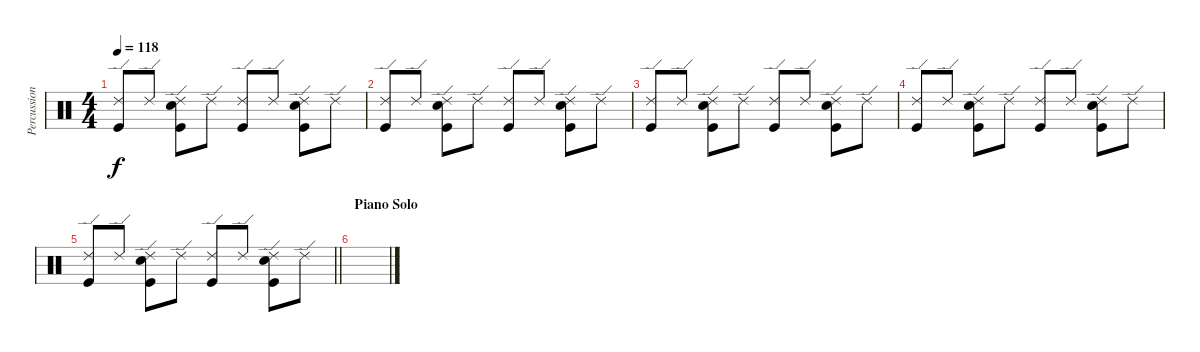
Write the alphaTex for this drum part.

\track ("Percussion (RSE)" "Percussion") {instrument percussion}
\staff {score}
\articulation defaults
\ts (4 4)
\tempo 118
\clef neutral
\ks c
("Ride (edge) 2" "Kick (hit)").8{dy f} "Ride (edge) 2".8 ("Ride (edge) 2" "Snare (hit) 2" "Kick (hit)").8 "Ride (edge) 2".8 ("Ride (edge) 2" "Kick (hit)").8 "Ride (edge) 2".8 ("Ride (edge) 2" "Snare (hit) 2" "Kick (hit)").8 "Ride (edge) 2".8 |
("Ride (edge) 2" "Kick (hit)").8 "Ride (edge) 2".8 ("Ride (edge) 2" "Snare (hit) 2" "Kick (hit)").8 "Ride (edge) 2".8 ("Ride (edge) 2" "Kick (hit)").8 "Ride (edge) 2".8 ("Ride (edge) 2" "Snare (hit) 2" "Kick (hit)").8 "Ride (edge) 2".8 |
("Ride (edge) 2" "Kick (hit)").8 "Ride (edge) 2".8 ("Ride (edge) 2" "Snare (hit) 2" "Kick (hit)").8 "Ride (edge) 2".8 ("Ride (edge) 2" "Kick (hit)").8 "Ride (edge) 2".8 ("Ride (edge) 2" "Snare (hit) 2" "Kick (hit)").8 "Ride (edge) 2".8 |
("Ride (edge) 2" "Kick (hit)").8 "Ride (edge) 2".8 ("Ride (edge) 2" "Snare (hit) 2" "Kick (hit)").8 "Ride (edge) 2".8 ("Ride (edge) 2" "Kick (hit)").8 "Ride (edge) 2".8 ("Ride (edge) 2" "Snare (hit) 2" "Kick (hit)").8 "Ride (edge) 2".8 |
\barLineRight lightlight
("Ride (edge) 2" "Kick (hit)").8 "Ride (edge) 2".8 ("Ride (edge) 2" "Snare (hit) 2" "Kick (hit)").8 "Ride (edge) 2".8 ("Ride (edge) 2" "Kick (hit)").8 "Ride (edge) 2".8 ("Ride (edge) 2" "Snare (hit) 2" "Kick (hit)").8 "Ride (edge) 2".8 |
\section ("" "Piano Solo")
